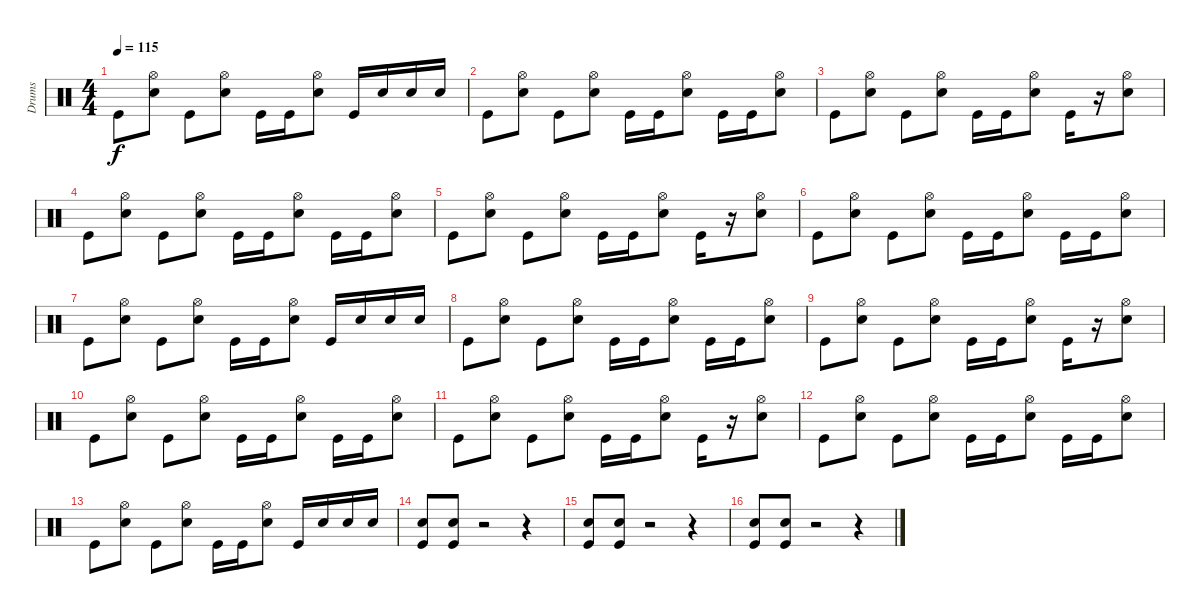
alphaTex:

\track ("Drums" "Drums") {instrument percussion}
\staff {score}
\articulation defaults
\ts (4 4)
\tempo 115
\clef neutral
\ks c "Kick (hit)".8{dy f}
("Electric Snare (hit)" "Hi-Hat (open)").8 "Kick (hit)".8 ("Electric Snare (hit)" "Hi-Hat (open)").8 "Kick (hit)".16 "Kick (hit)".16 ("Electric Snare (hit)" "Hi-Hat (open)").8 "Kick (hit)".16 "Electric Snare (hit)".16 "Electric Snare (hit)".16 "Electric Snare (hit)".16 |
"Kick (hit)".8 ("Electric Snare (hit)" "Hi-Hat (open)").8 "Kick (hit)".8 ("Electric Snare (hit)" "Hi-Hat (open)").8 "Kick (hit)".16 "Kick (hit)".16 ("Electric Snare (hit)" "Hi-Hat (open)").8 "Kick (hit)".16 "Kick (hit)".16 ("Electric Snare (hit)" "Hi-Hat (open)").8 |
"Kick (hit)".8 ("Electric Snare (hit)" "Hi-Hat (open)").8 "Kick (hit)".8 ("Electric Snare (hit)" "Hi-Hat (open)").8 "Kick (hit)".16 "Kick (hit)".16 ("Electric Snare (hit)" "Hi-Hat (open)").8 "Kick (hit)".16 r.16 ("Electric Snare (hit)" "Hi-Hat (open)").8 |
"Kick (hit)".8 ("Electric Snare (hit)" "Hi-Hat (open)").8 "Kick (hit)".8 ("Electric Snare (hit)" "Hi-Hat (open)").8 "Kick (hit)".16 "Kick (hit)".16 ("Electric Snare (hit)" "Hi-Hat (open)").8 "Kick (hit)".16 "Kick (hit)".16 ("Electric Snare (hit)" "Hi-Hat (open)").8 |
"Kick (hit)".8 ("Electric Snare (hit)" "Hi-Hat (open)").8 "Kick (hit)".8 ("Electric Snare (hit)" "Hi-Hat (open)").8 "Kick (hit)".16 "Kick (hit)".16 ("Electric Snare (hit)" "Hi-Hat (open)").8 "Kick (hit)".16 r.16 ("Electric Snare (hit)" "Hi-Hat (open)").8 |
"Kick (hit)".8 ("Electric Snare (hit)" "Hi-Hat (open)").8 "Kick (hit)".8 ("Electric Snare (hit)" "Hi-Hat (open)").8 "Kick (hit)".16 "Kick (hit)".16 ("Electric Snare (hit)" "Hi-Hat (open)").8 "Kick (hit)".16 "Kick (hit)".16 ("Electric Snare (hit)" "Hi-Hat (open)").8 |
"Kick (hit)".8 ("Electric Snare (hit)" "Hi-Hat (open)").8 "Kick (hit)".8 ("Electric Snare (hit)" "Hi-Hat (open)").8 "Kick (hit)".16 "Kick (hit)".16 ("Electric Snare (hit)" "Hi-Hat (open)").8 "Kick (hit)".16 "Electric Snare (hit)".16 "Electric Snare (hit)".16 "Electric Snare (hit)".16 |
"Kick (hit)".8 ("Electric Snare (hit)" "Hi-Hat (open)").8 "Kick (hit)".8 ("Electric Snare (hit)" "Hi-Hat (open)").8 "Kick (hit)".16 "Kick (hit)".16 ("Electric Snare (hit)" "Hi-Hat (open)").8 "Kick (hit)".16 "Kick (hit)".16 ("Electric Snare (hit)" "Hi-Hat (open)").8 |
"Kick (hit)".8 ("Electric Snare (hit)" "Hi-Hat (open)").8 "Kick (hit)".8 ("Electric Snare (hit)" "Hi-Hat (open)").8 "Kick (hit)".16 "Kick (hit)".16 ("Electric Snare (hit)" "Hi-Hat (open)").8 "Kick (hit)".16 r.16 ("Electric Snare (hit)" "Hi-Hat (open)").8 |
"Kick (hit)".8 ("Electric Snare (hit)" "Hi-Hat (open)").8 "Kick (hit)".8 ("Electric Snare (hit)" "Hi-Hat (open)").8 "Kick (hit)".16 "Kick (hit)".16 ("Electric Snare (hit)" "Hi-Hat (open)").8 "Kick (hit)".16 "Kick (hit)".16 ("Electric Snare (hit)" "Hi-Hat (open)").8 |
"Kick (hit)".8 ("Electric Snare (hit)" "Hi-Hat (open)").8 "Kick (hit)".8 ("Electric Snare (hit)" "Hi-Hat (open)").8 "Kick (hit)".16 "Kick (hit)".16 ("Electric Snare (hit)" "Hi-Hat (open)").8 "Kick (hit)".16 r.16 ("Electric Snare (hit)" "Hi-Hat (open)").8 |
"Kick (hit)".8 ("Electric Snare (hit)" "Hi-Hat (open)").8 "Kick (hit)".8 ("Electric Snare (hit)" "Hi-Hat (open)").8 "Kick (hit)".16 "Kick (hit)".16 ("Electric Snare (hit)" "Hi-Hat (open)").8 "Kick (hit)".16 "Kick (hit)".16 ("Electric Snare (hit)" "Hi-Hat (open)").8 |
"Kick (hit)".8 ("Electric Snare (hit)" "Hi-Hat (open)").8 "Kick (hit)".8 ("Electric Snare (hit)" "Hi-Hat (open)").8 "Kick (hit)".16 "Kick (hit)".16 ("Electric Snare (hit)" "Hi-Hat (open)").8 "Kick (hit)".16 "Electric Snare (hit)".16 "Electric Snare (hit)".16 "Electric Snare (hit)".16 |
("Electric Snare (hit)" "Kick (hit)").8 ("Electric Snare (hit)" "Kick (hit)").8 r.2 r.4 |
("Electric Snare (hit)" "Kick (hit)").8 ("Electric Snare (hit)" "Kick (hit)").8 r.2 r.4 |
("Electric Snare (hit)" "Kick (hit)").8 ("Electric Snare (hit)" "Kick (hit)").8 r.2 r.4
